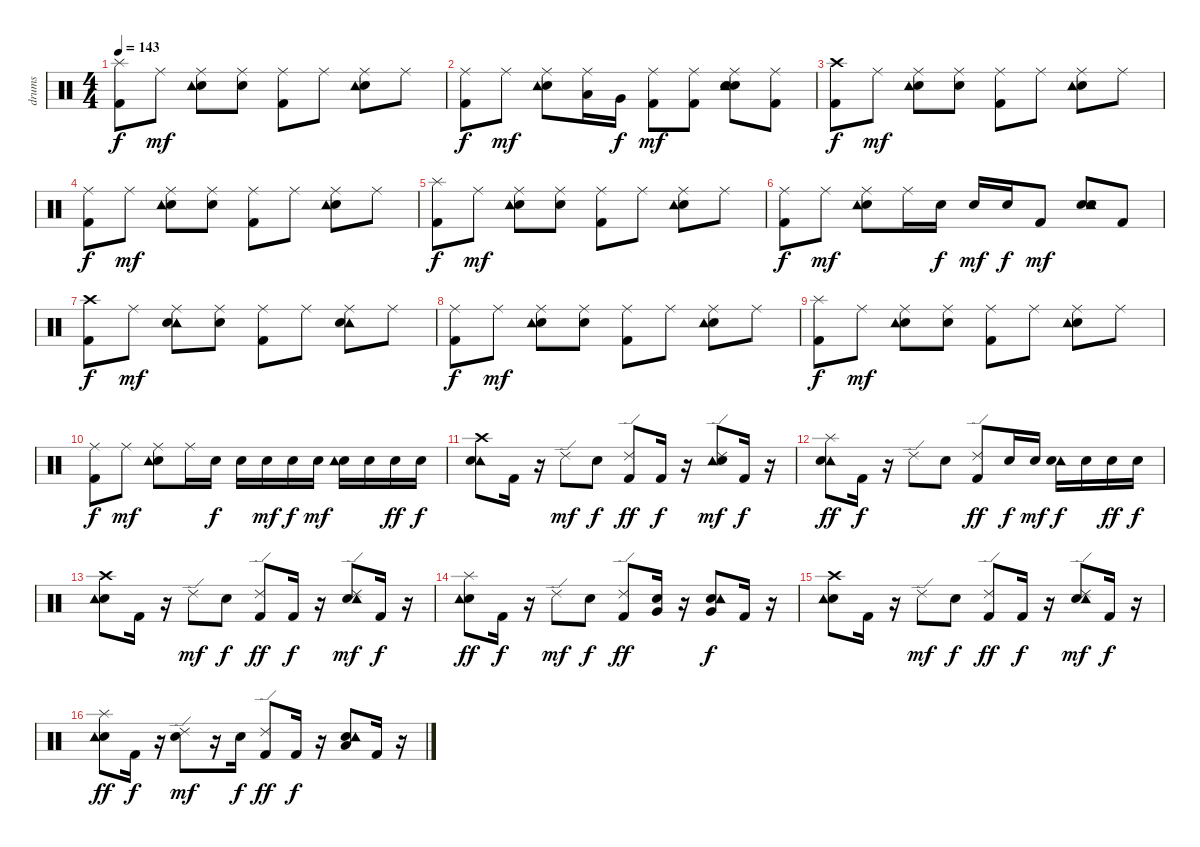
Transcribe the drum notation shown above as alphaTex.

\track ("drums" "drums") {instrument percussion}
\staff {score}
\articulation defaults
\ts (4 4)
\tempo 143
\clef neutral
\ks c
("Splash (hit)" "Kick (hit) 2").8{dy f} "Ride (middle)".8{dy mf} ("Ride (middle)" "Snare (hit) 2" "Tambourine (hit)").8 ("Snare (hit) 2" "Ride (middle)").8 ("Kick (hit) 2" "Ride (middle)").8 "Ride (middle)".8 ("Snare (hit) 2" "Ride (middle)" "Tambourine (hit)").8 "Ride (middle)".8 |
("Ride (middle)" "Kick (hit) 2").8{dy f} "Ride (middle)".8{dy mf} ("Ride (middle)" "Snare (hit) 2" "Tambourine (hit)").8 ("Low Tom (hit)" "Ride (middle)").16 "Very Low Tom (hit)".16{dy f} ("Kick (hit) 2" "Ride (middle)").8{dy mf} ("Kick (hit) 2" "Ride (middle)").8 ("Snare (hit) 2" "Ride (middle)" "Tambourine (hit)" "Snare (hit) 2").8 ("Kick (hit) 2" "Ride (middle)").8 |
("Crash high (hit)" "Kick (hit) 2").8{dy f} "Ride (middle)".8{dy mf} ("Snare (hit) 2" "Ride (middle)" "Tambourine (hit)").8 ("Snare (hit) 2" "Ride (middle)").8 ("Ride (middle)" "Kick (hit) 2").8 "Ride (middle)".8 ("Ride (middle)" "Snare (hit) 2" "Tambourine (hit)").8 "Ride (middle)".8 |
("Kick (hit) 2" "Ride (middle)").8{dy f} "Ride (middle)".8{dy mf} ("Snare (hit) 2" "Ride (middle)" "Tambourine (hit)").8 ("Ride (middle)" "Snare (hit) 2").8 ("Ride (middle)" "Kick (hit) 2").8 "Ride (middle)".8 ("Ride (middle)" "Snare (hit) 2" "Tambourine (hit)").8 "Ride (middle)".8 |
("Kick (hit) 2" "Splash (hit)").8{dy f} "Ride (middle)".8{dy mf} ("Snare (hit) 2" "Ride (middle)" "Tambourine (hit)").8 ("Ride (middle)" "Snare (hit) 2").8 ("Ride (middle)" "Kick (hit) 2").8 "Ride (middle)".8 ("Snare (hit) 2" "Ride (middle)" "Tambourine (hit)").8 "Ride (middle)".8 |
("Kick (hit) 2" "Ride (middle)").8{dy f} "Ride (middle)".8{dy mf} ("Snare (hit) 2" "Ride (middle)" "Tambourine (hit)").8 "Ride (middle)".16 "Snare (hit) 2".16{dy f} "Snare (hit) 2".16{dy mf} "Snare (hit) 2".16{dy f} "Kick (hit) 2".8{dy mf} ("Snare (hit) 2" "Tambourine (hit)" "Snare (hit) 2").8 "Kick (hit) 2".8 |
("Kick (hit) 2" "Crash high (hit)").8{dy f} "Ride (middle)".8{dy mf} ("Tambourine (hit)" "Snare (hit) 2" "Ride (middle)").8 ("Snare (hit) 2" "Ride (middle)").8 ("Ride (middle)" "Kick (hit) 2").8 "Ride (middle)".8 ("Tambourine (hit)" "Ride (middle)" "Snare (hit) 2").8 "Ride (middle)".8 |
("Kick (hit) 2" "Ride (middle)").8{dy f} "Ride (middle)".8{dy mf} ("Snare (hit) 2" "Ride (middle)" "Tambourine (hit)").8 ("Ride (middle)" "Snare (hit) 2").8 ("Ride (middle)" "Kick (hit) 2").8 "Ride (middle)".8 ("Ride (middle)" "Snare (hit) 2" "Tambourine (hit)").8 "Ride (middle)".8 |
("Kick (hit) 2" "Splash (hit)").8{dy f} "Ride (middle)".8{dy mf} ("Snare (hit) 2" "Ride (middle)" "Tambourine (hit)").8 ("Ride (middle)" "Snare (hit) 2").8 ("Ride (middle)" "Kick (hit) 2").8 "Ride (middle)".8 ("Ride (middle)" "Snare (hit) 2" "Tambourine (hit)").8 "Ride (middle)".8 |
("Kick (hit) 2" "Ride (middle)").8{dy f} "Ride (middle)".8{dy mf} ("Snare (hit) 2" "Ride (middle)" "Tambourine (hit)").8 "Ride (middle)".16 "Snare (hit) 2".16{dy f} "Snare (hit) 2".16 "Snare (hit) 2".16{dy mf} "Snare (hit) 2".16{dy f} "Snare (hit) 2".16{dy mf} ("Snare (hit) 2" "Tambourine (hit)").16 "Snare (hit) 2".16 "Snare (hit) 2".16{dy ff} "Snare (hit) 2".16{dy f} |
("Tambourine (hit)" "Crash high (hit)" "Snare (hit) 2").8 "Kick (hit) 2".16 r.16 "Ride (edge) 2".8{dy mf} "Snare (hit) 2".8{dy f} ("Ride (edge) 2" "Kick (hit) 2").8{dy ff} "Kick (hit) 2".16{dy f} r.16 ("Tambourine (hit)" "Ride (edge) 2" "Snare (hit) 2").8{dy mf} "Kick (hit) 2".16{dy f} r.16 |
("Tambourine (hit)" "Splash (hit)" "Snare (hit) 2").8{dy ff} "Kick (hit) 2".16{dy f} r.16 "Ride (edge) 2".8 "Snare (hit) 2".8 ("Ride (edge) 2" "Kick (hit) 2").8{dy ff} "Snare (hit) 2".16{dy f} "Snare (hit) 2".16{dy mf} ("Tambourine (hit)" "Snare (hit) 2").16{dy f} "Snare (hit) 2".16 "Snare (hit) 2".16{dy ff} "Snare (hit) 2".16{dy f} |
("Crash high (hit)" "Snare (hit) 2" "Tambourine (hit)").8 "Kick (hit) 2".16 r.16 "Ride (edge) 2".8{dy mf} "Snare (hit) 2".8{dy f} ("Ride (edge) 2" "Kick (hit) 2").8{dy ff} "Kick (hit) 2".16{dy f} r.16 ("Ride (edge) 2" "Snare (hit) 2" "Tambourine (hit)").8{dy mf} "Kick (hit) 2".16{dy f} r.16 |
("Splash (hit)" "Snare (hit) 2" "Tambourine (hit)").8{dy ff} "Kick (hit) 2".16{dy f} r.16 "Ride (edge) 2".8{dy mf} "Snare (hit) 2".8{dy f} ("Kick (hit) 2" "Ride (edge) 2").8{dy ff} ("Very Low Tom (hit)" "Snare (hit) 2").16 r.16 ("Very Low Tom (hit)" "Snare (hit) 2" "Tambourine (hit)").8{dy f} "Kick (hit) 2".16 r.16 |
("Crash high (hit)" "Snare (hit) 2" "Tambourine (hit)").8 "Kick (hit) 2".16 r.16 "Ride (edge) 2".8{dy mf} "Snare (hit) 2".8{dy f} ("Ride (edge) 2" "Kick (hit) 2").8{dy ff} "Kick (hit) 2".16{dy f} r.16 ("Ride (edge) 2" "Snare (hit) 2" "Tambourine (hit)").8{dy mf} "Kick (hit) 2".16{dy f} r.16 |
("Snare (hit) 2" "Splash (hit)" "Tambourine (hit)").8{dy ff} "Kick (hit) 2".16{dy f} r.16 ("Snare (hit) 2" "Ride (edge) 2").8{dy mf} r.16 "Snare (hit) 2".16{dy f} ("Kick (hit) 2" "Ride (edge) 2").8{dy ff} "Kick (hit) 2".16{dy f} r.16 ("Low Floor Tom (hit)" "Snare (hit) 2" "Tambourine (hit)").8 "Kick (hit) 2".16 r.16
